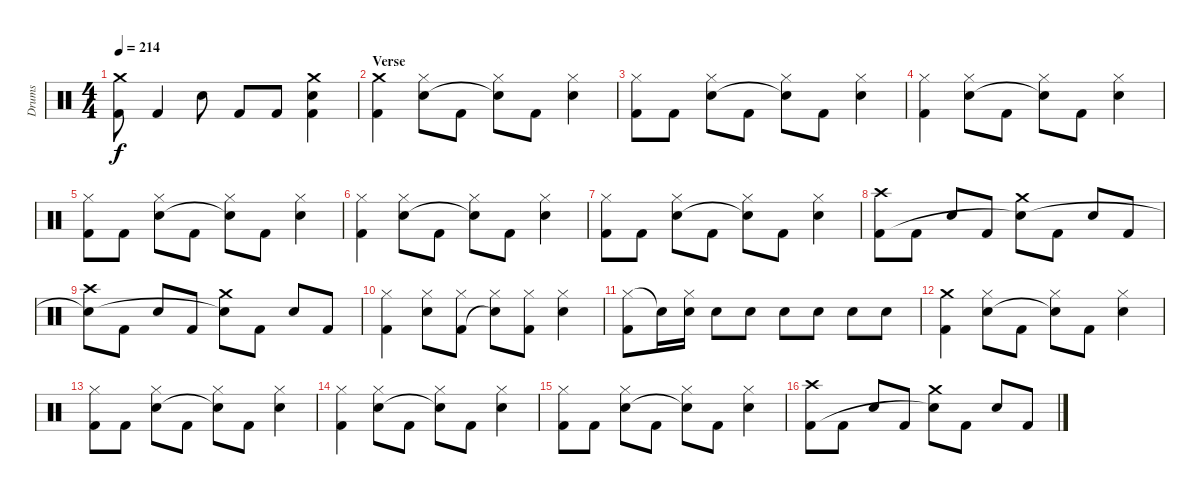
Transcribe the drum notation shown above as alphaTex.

\track ("Drums" "Drums") {instrument percussion}
\staff {score}
\articulation defaults
\ts (4 4)
\tempo 214
\clef neutral
\ks c
("Crash medium (hit)" "Kick (hit) 2").8{dy f} "Kick (hit) 2".4 "Electric Snare (hit)".8 "Kick (hit) 2".8 "Kick (hit) 2".8 ("Crash medium (hit)" "Electric Snare (hit)" "Kick (hit) 2").4 |
\section ("" "Verse")
("Crash medium (hit)" "Kick (hit) 2").4 ("Hi-Hat (closed)" "Electric Snare (hit)").8 "Kick (hit) 2".8 ("Hi-Hat (closed)" "Snare (hit)"{t}).8 "Kick (hit) 2".8 ("Hi-Hat (closed)" "Electric Snare (hit)").4 |
("Hi-Hat (closed)" "Kick (hit) 2").8 "Kick (hit) 2".8 ("Hi-Hat (closed)" "Electric Snare (hit)").8 "Kick (hit) 2".8 ("Hi-Hat (closed)" "Snare (hit)"{t}).8 "Kick (hit) 2".8 ("Hi-Hat (closed)" "Electric Snare (hit)").4 |
("Hi-Hat (closed)" "Kick (hit) 2").4 ("Hi-Hat (closed)" "Electric Snare (hit)").8 "Kick (hit) 2".8 ("Hi-Hat (closed)" "Snare (hit)"{t}).8 "Kick (hit) 2".8 ("Hi-Hat (closed)" "Electric Snare (hit)").4 |
("Hi-Hat (closed)" "Kick (hit) 2").8 "Kick (hit) 2".8 ("Hi-Hat (closed)" "Electric Snare (hit)").8 "Kick (hit) 2".8 ("Hi-Hat (closed)" "Snare (hit)"{t}).8 "Kick (hit) 2".8 ("Hi-Hat (closed)" "Electric Snare (hit)").4 |
("Hi-Hat (closed)" "Kick (hit) 2").4 ("Hi-Hat (closed)" "Electric Snare (hit)").8 "Kick (hit) 2".8 ("Hi-Hat (closed)" "Snare (hit)"{t}).8 "Kick (hit) 2".8 ("Hi-Hat (closed)" "Electric Snare (hit)").4 |
("Hi-Hat (closed)" "Kick (hit) 2").8 "Kick (hit) 2".8 ("Hi-Hat (closed)" "Electric Snare (hit)").8 "Kick (hit) 2".8 ("Hi-Hat (closed)" "Snare (hit)"{t}).8 "Kick (hit) 2".8 ("Hi-Hat (closed)" "Electric Snare (hit)").4 |
("Crash high (hit)" "Kick (hit) 2").8 "Kick (hit) 2".8 "Electric Snare (hit)".8 "Kick (hit) 2".8 ("Crash medium (hit)" "Snare (hit)"{t}).8 "Kick (hit) 2".8 "Electric Snare (hit)".8 "Kick (hit) 2".8 |
("Crash high (hit)" "Snare (hit)"{t}).8 "Kick (hit) 2".8 "Electric Snare (hit)".8 "Kick (hit) 2".8 ("Crash medium (hit)" "Snare (hit)"{t}).8 "Kick (hit) 2".8 "Electric Snare (hit)".8 "Kick (hit) 2".8 |
("Hi-Hat (closed)" "Kick (hit) 2").4 ("Hi-Hat (closed)" "Electric Snare (hit)").8 ("Hi-Hat (closed)" "Kick (hit) 2").8 ("Hi-Hat (closed)" "Snare (hit)"{t}).8 ("Hi-Hat (closed)" "Kick (hit) 2").8 ("Hi-Hat (closed)" "Electric Snare (hit)").4 |
("Hi-Hat (closed)" "Kick (hit) 2").8 "Snare (hit)"{t}.16 ("Hi-Hat (closed)" "Electric Snare (hit)").16 "Electric Snare (hit)".8 "Electric Snare (hit)".8 "Electric Snare (hit)".8 "Electric Snare (hit)".8 "Electric Snare (hit)".8 "Electric Snare (hit)".8 |
("Crash medium (hit)" "Kick (hit) 2").4 ("Hi-Hat (closed)" "Electric Snare (hit)").8 "Kick (hit) 2".8 ("Hi-Hat (closed)" "Snare (hit)"{t}).8 "Kick (hit) 2".8 ("Hi-Hat (closed)" "Electric Snare (hit)").4 |
("Hi-Hat (closed)" "Kick (hit) 2").8 "Kick (hit) 2".8 ("Hi-Hat (closed)" "Electric Snare (hit)").8 "Kick (hit) 2".8 ("Hi-Hat (closed)" "Snare (hit)"{t}).8 "Kick (hit) 2".8 ("Hi-Hat (closed)" "Electric Snare (hit)").4 |
("Hi-Hat (closed)" "Kick (hit) 2").4 ("Hi-Hat (closed)" "Electric Snare (hit)").8 "Kick (hit) 2".8 ("Hi-Hat (closed)" "Snare (hit)"{t}).8 "Kick (hit) 2".8 ("Hi-Hat (closed)" "Electric Snare (hit)").4 |
("Hi-Hat (closed)" "Kick (hit) 2").8 "Kick (hit) 2".8 ("Hi-Hat (closed)" "Electric Snare (hit)").8 "Kick (hit) 2".8 ("Hi-Hat (closed)" "Snare (hit)"{t}).8 "Kick (hit) 2".8 ("Hi-Hat (closed)" "Electric Snare (hit)").4 |
("Crash high (hit)" "Kick (hit) 2").8 "Kick (hit) 2".8 "Electric Snare (hit)".8 "Kick (hit) 2".8 ("Crash medium (hit)" "Snare (hit)"{t}).8 "Kick (hit) 2".8 "Electric Snare (hit)".8 "Kick (hit) 2".8
